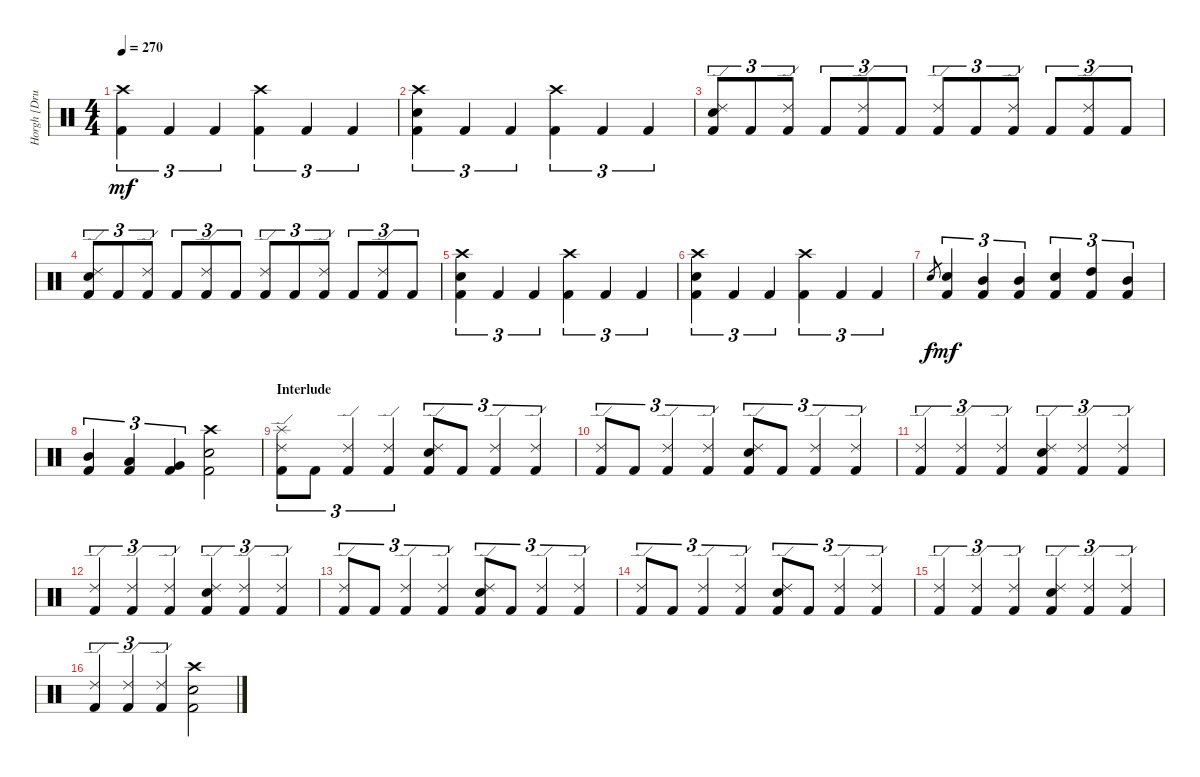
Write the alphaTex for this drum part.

\track ("Horgh [Drums]" "Horgh [Dru") {instrument percussion}
\staff {score}
\articulation defaults
\ts (4 4)
\tempo 270
\clef neutral
\ks c
("Crash high (hit)" "Kick (hit) 2").4{tu (3 2) dy mf} "Kick (hit) 2".4{tu (3 2)} "Kick (hit) 2".4{tu (3 2)} ("Crash high (hit)" "Kick (hit) 2").4{tu (3 2)} "Kick (hit) 2".4{tu (3 2)} "Kick (hit) 2".4{tu (3 2)} |
("Crash high (hit)" "Electric Snare (hit)" "Kick (hit) 2").4{tu (3 2)} "Kick (hit) 2".4{tu (3 2)} "Kick (hit) 2".4{tu (3 2)} ("Crash high (hit)" "Kick (hit) 2").4{tu (3 2)} "Kick (hit) 2".4{tu (3 2)} "Kick (hit) 2".4{tu (3 2)} |
("Ride (edge) 2" "Electric Snare (hit)" "Kick (hit) 2").8{tu (3 2)} "Kick (hit) 2".8{tu (3 2)} ("Ride (edge) 2" "Kick (hit) 2").8{tu (3 2)} "Kick (hit) 2".8{tu (3 2)} ("Ride (edge) 2" "Kick (hit) 2").8{tu (3 2)} "Kick (hit) 2".8{tu (3 2)} ("Ride (edge) 2" "Kick (hit) 2").8{tu (3 2)} "Kick (hit) 2".8{tu (3 2)} ("Ride (edge) 2" "Kick (hit) 2").8{tu (3 2)} "Kick (hit) 2".8{tu (3 2)} ("Ride (edge) 2" "Kick (hit) 2").8{tu (3 2)} "Kick (hit) 2".8{tu (3 2)} |
("Ride (edge) 2" "Electric Snare (hit)" "Kick (hit) 2").8{tu (3 2)} "Kick (hit) 2".8{tu (3 2)} ("Ride (edge) 2" "Kick (hit) 2").8{tu (3 2)} "Kick (hit) 2".8{tu (3 2)} ("Ride (edge) 2" "Kick (hit) 2").8{tu (3 2)} "Kick (hit) 2".8{tu (3 2)} ("Ride (edge) 2" "Kick (hit) 2").8{tu (3 2)} "Kick (hit) 2".8{tu (3 2)} ("Ride (edge) 2" "Kick (hit) 2").8{tu (3 2)} "Kick (hit) 2".8{tu (3 2)} ("Ride (edge) 2" "Kick (hit) 2").8{tu (3 2)} "Kick (hit) 2".8{tu (3 2)} |
("Crash high (hit)" "Electric Snare (hit)" "Kick (hit) 2").4{tu (3 2)} "Kick (hit) 2".4{tu (3 2)} "Kick (hit) 2".4{tu (3 2)} ("Crash high (hit)" "Kick (hit) 2").4{tu (3 2)} "Kick (hit) 2".4{tu (3 2)} "Kick (hit) 2".4{tu (3 2)} |
("Crash high (hit)" "Electric Snare (hit)" "Kick (hit) 2").4{tu (3 2)} "Kick (hit) 2".4{tu (3 2)} "Kick (hit) 2".4{tu (3 2)} ("Crash high (hit)" "Kick (hit) 2").4{tu (3 2)} "Kick (hit) 2".4{tu (3 2)} "Kick (hit) 2".4{tu (3 2)} |
"Electric Snare (hit)".8{gr dy f} ("Electric Snare (hit)" "Kick (hit) 2").4{tu (3 2) dy mf} ("Mid Tom (hit)" "Kick (hit) 2").4{tu (3 2)} ("Mid Tom (hit)" "Kick (hit) 2").4{tu (3 2)} ("Electric Snare (hit)" "Kick (hit) 2").4{tu (3 2)} ("High Tom (hit)" "Kick (hit) 2").4{tu (3 2)} ("Mid Tom (hit)" "Kick (hit) 2").4{tu (3 2)} |
("Mid Tom (hit)" "Kick (hit) 2").4{tu (3 2)} ("Low Tom (hit)" "Kick (hit) 2").4{tu (3 2)} ("Very Low Tom (hit)" "Kick (hit) 2").4{tu (3 2)} ("Crash high (hit)" "Electric Snare (hit)" "Kick (hit) 2").2 |
\section ("" "Interlude")
("Splash (hit)" "Ride (edge) 2" "Kick (hit) 2").8{tu (3 2)} "Kick (hit) 2".8{tu (3 2)} ("Ride (edge) 2" "Kick (hit) 2").4{tu (3 2)} ("Ride (edge) 2" "Kick (hit) 2").4{tu (3 2)} ("Ride (edge) 2" "Electric Snare (hit)" "Kick (hit) 2").8{tu (3 2)} "Kick (hit) 2".8{tu (3 2)} ("Ride (edge) 2" "Kick (hit) 2").4{tu (3 2)} ("Ride (edge) 2" "Kick (hit) 2").4{tu (3 2)} |
("Ride (edge) 2" "Kick (hit) 2").8{tu (3 2)} "Kick (hit) 2".8{tu (3 2)} ("Ride (edge) 2" "Kick (hit) 2").4{tu (3 2)} ("Ride (edge) 2" "Kick (hit) 2").4{tu (3 2)} ("Ride (edge) 2" "Electric Snare (hit)" "Kick (hit) 2").8{tu (3 2)} "Kick (hit) 2".8{tu (3 2)} ("Ride (edge) 2" "Kick (hit) 2").4{tu (3 2)} ("Ride (edge) 2" "Kick (hit) 2").4{tu (3 2)} |
("Ride (edge) 2" "Kick (hit) 2").4{tu (3 2)} ("Ride (edge) 2" "Kick (hit) 2").4{tu (3 2)} ("Ride (edge) 2" "Kick (hit) 2").4{tu (3 2)} ("Ride (edge) 2" "Electric Snare (hit)" "Kick (hit) 2").4{tu (3 2)} ("Ride (edge) 2" "Kick (hit) 2").4{tu (3 2)} ("Ride (edge) 2" "Kick (hit) 2").4{tu (3 2)} |
("Ride (edge) 2" "Kick (hit) 2").4{tu (3 2)} ("Ride (edge) 2" "Kick (hit) 2").4{tu (3 2)} ("Ride (edge) 2" "Kick (hit) 2").4{tu (3 2)} ("Ride (edge) 2" "Electric Snare (hit)" "Kick (hit) 2").4{tu (3 2)} ("Ride (edge) 2" "Kick (hit) 2").4{tu (3 2)} ("Ride (edge) 2" "Kick (hit) 2").4{tu (3 2)} |
("Ride (edge) 2" "Kick (hit) 2").8{tu (3 2)} "Kick (hit) 2".8{tu (3 2)} ("Ride (edge) 2" "Kick (hit) 2").4{tu (3 2)} ("Ride (edge) 2" "Kick (hit) 2").4{tu (3 2)} ("Ride (edge) 2" "Electric Snare (hit)" "Kick (hit) 2").8{tu (3 2)} "Kick (hit) 2".8{tu (3 2)} ("Ride (edge) 2" "Kick (hit) 2").4{tu (3 2)} ("Ride (edge) 2" "Kick (hit) 2").4{tu (3 2)} |
("Ride (edge) 2" "Kick (hit) 2").8{tu (3 2)} "Kick (hit) 2".8{tu (3 2)} ("Ride (edge) 2" "Kick (hit) 2").4{tu (3 2)} ("Ride (edge) 2" "Kick (hit) 2").4{tu (3 2)} ("Ride (edge) 2" "Electric Snare (hit)" "Kick (hit) 2").8{tu (3 2)} "Kick (hit) 2".8{tu (3 2)} ("Ride (edge) 2" "Kick (hit) 2").4{tu (3 2)} ("Ride (edge) 2" "Kick (hit) 2").4{tu (3 2)} |
("Ride (edge) 2" "Kick (hit) 2").4{tu (3 2)} ("Ride (edge) 2" "Kick (hit) 2").4{tu (3 2)} ("Ride (edge) 2" "Kick (hit) 2").4{tu (3 2)} ("Ride (edge) 2" "Electric Snare (hit)" "Kick (hit) 2").4{tu (3 2)} ("Ride (edge) 2" "Kick (hit) 2").4{tu (3 2)} ("Ride (edge) 2" "Kick (hit) 2").4{tu (3 2)} |
("Ride (edge) 2" "Kick (hit) 2").4{tu (3 2)} ("Ride (edge) 2" "Kick (hit) 2").4{tu (3 2)} ("Ride (edge) 2" "Kick (hit) 2").4{tu (3 2)} ("Crash high (hit)" "Electric Snare (hit)" "Kick (hit) 2").2
